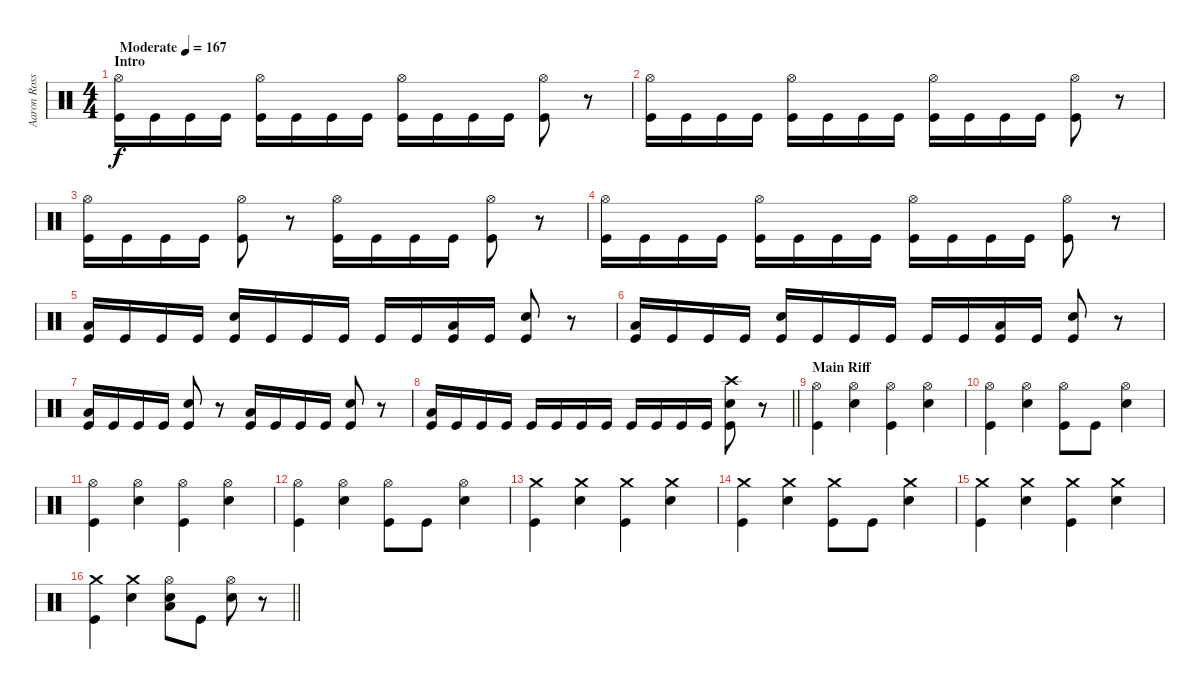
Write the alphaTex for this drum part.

\track ("Aaron Rossi (Drums)" "Aaron Ross") {instrument percussion}
\staff {score}
\articulation defaults
\ts (4 4)
\section ("" "Intro")
\tempo (167 "Moderate")
\clef neutral
\ks c
("Hi-Hat (open)" "Kick (hit)").16{dy f} "Kick (hit)".16 "Kick (hit)".16 "Kick (hit)".16 ("Hi-Hat (open)" "Kick (hit)").16 "Kick (hit)".16 "Kick (hit)".16 "Kick (hit)".16 ("Hi-Hat (open)" "Kick (hit)").16 "Kick (hit)".16 "Kick (hit)".16 "Kick (hit)".16 ("Hi-Hat (open)" "Kick (hit)").8 r.8 |
("Hi-Hat (open)" "Kick (hit)").16 "Kick (hit)".16 "Kick (hit)".16 "Kick (hit)".16 ("Hi-Hat (open)" "Kick (hit)").16 "Kick (hit)".16 "Kick (hit)".16 "Kick (hit)".16 ("Hi-Hat (open)" "Kick (hit)").16 "Kick (hit)".16 "Kick (hit)".16 "Kick (hit)".16 ("Hi-Hat (open)" "Kick (hit)").8 r.8 |
("Hi-Hat (open)" "Kick (hit)").16 "Kick (hit)".16 "Kick (hit)".16 "Kick (hit)".16 ("Hi-Hat (open)" "Kick (hit)").8 r.8 ("Hi-Hat (open)" "Kick (hit)").16 "Kick (hit)".16 "Kick (hit)".16 "Kick (hit)".16 ("Hi-Hat (open)" "Kick (hit)").8 r.8 |
("Hi-Hat (open)" "Kick (hit)").16 "Kick (hit)".16 "Kick (hit)".16 "Kick (hit)".16 ("Hi-Hat (open)" "Kick (hit)").16 "Kick (hit)".16 "Kick (hit)".16 "Kick (hit)".16 ("Hi-Hat (open)" "Kick (hit)").16 "Kick (hit)".16 "Kick (hit)".16 "Kick (hit)".16 ("Hi-Hat (open)" "Kick (hit)").8 r.8 |
("Low Floor Tom (hit)" "Kick (hit)").16 "Kick (hit)".16 "Kick (hit)".16 "Kick (hit)".16 ("Snare (hit) 2" "Kick (hit)").16 "Kick (hit)".16 "Kick (hit)".16 "Kick (hit)".16 "Kick (hit)".16 "Kick (hit)".16 ("Low Floor Tom (hit)" "Kick (hit)").16 "Kick (hit)".16 ("Snare (hit) 2" "Kick (hit)").8 r.8 |
("Low Floor Tom (hit)" "Kick (hit)").16 "Kick (hit)".16 "Kick (hit)".16 "Kick (hit)".16 ("Snare (hit) 2" "Kick (hit)").16 "Kick (hit)".16 "Kick (hit)".16 "Kick (hit)".16 "Kick (hit)".16 "Kick (hit)".16 ("Low Floor Tom (hit)" "Kick (hit)").16 "Kick (hit)".16 ("Snare (hit) 2" "Kick (hit)").8 r.8 |
("Low Floor Tom (hit)" "Kick (hit)").16 "Kick (hit)".16 "Kick (hit)".16 "Kick (hit)".16 ("Snare (hit) 2" "Kick (hit)").8 r.8 ("Low Floor Tom (hit)" "Kick (hit)").16 "Kick (hit)".16 "Kick (hit)".16 "Kick (hit)".16 ("Snare (hit) 2" "Kick (hit)").8 r.8 |
\barLineRight lightlight
("Low Floor Tom (hit)" "Kick (hit)").16 "Kick (hit)".16 "Kick (hit)".16 "Kick (hit)".16 "Kick (hit)".16 "Kick (hit)".16 "Kick (hit)".16 "Kick (hit)".16 "Kick (hit)".16 "Kick (hit)".16 "Kick (hit)".16 "Kick (hit)".16 ("Crash high (hit)" "Snare (hit) 2" "Kick (hit)").8 r.8 |
\section ("" "Main Riff")
("Hi-Hat (open)" "Kick (hit)").4 ("Snare (hit) 2" "Hi-Hat (open)").4 ("Hi-Hat (open)" "Kick (hit)").4 ("Snare (hit) 2" "Hi-Hat (open)").4 |
("Hi-Hat (open)" "Kick (hit)").4 ("Snare (hit) 2" "Hi-Hat (open)").4 ("Hi-Hat (open)" "Kick (hit)").8 "Kick (hit)".8 ("Snare (hit) 2" "Hi-Hat (open)").4 |
("Hi-Hat (open)" "Kick (hit)").4 ("Snare (hit) 2" "Hi-Hat (open)").4 ("Hi-Hat (open)" "Kick (hit)").4 ("Snare (hit) 2" "Hi-Hat (open)").4 |
("Hi-Hat (open)" "Kick (hit)").4 ("Snare (hit) 2" "Hi-Hat (open)").4 ("Hi-Hat (open)" "Kick (hit)").8 "Kick (hit)".8 ("Snare (hit) 2" "Hi-Hat (open)").4 |
("Crash medium (hit)" "Kick (hit)").4 ("Crash medium (hit)" "Snare (hit) 2").4 ("Crash medium (hit)" "Kick (hit)").4 ("Crash medium (hit)" "Snare (hit) 2").4 |
("Crash medium (hit)" "Kick (hit)").4 ("Crash medium (hit)" "Snare (hit) 2").4 ("Crash medium (hit)" "Kick (hit)").8 "Kick (hit)".8 ("Crash medium (hit)" "Snare (hit) 2").4 |
("Crash medium (hit)" "Kick (hit)").4 ("Crash medium (hit)" "Snare (hit) 2").4 ("Crash medium (hit)" "Kick (hit)").4 ("Crash medium (hit)" "Snare (hit) 2").4 |
\barLineRight lightlight
("Crash medium (hit)" "Kick (hit)").4 ("Crash medium (hit)" "Snare (hit) 2").4 ("Snare (hit) 2" "Hi-Hat (open)" "Low Floor Tom (hit)").8 "Kick (hit)".8 ("Snare (hit) 2" "Hi-Hat (open)").8 r.8
